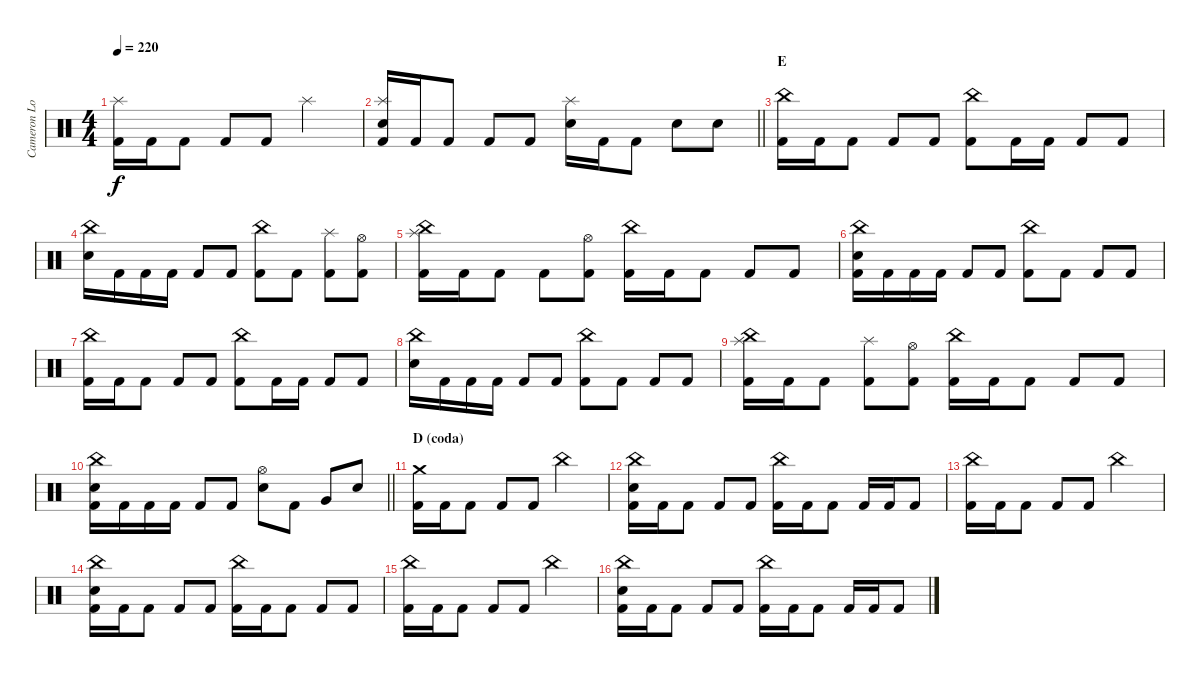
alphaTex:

\track ("Cameron Losch - Drums" "Cameron Lo") {instrument percussion}
\staff {score}
\articulation defaults
\ts (4 4)
\tempo 220
\clef neutral
\ks c
("Kick (hit) 2" "Splash (hit)").16{dy f} "Kick (hit) 2".16 "Kick (hit) 2".8 "Kick (hit) 2".8 "Kick (hit) 2".8 "Splash (hit)".2 |
\barLineRight lightlight
("Kick (hit) 2" "Electric Snare (hit)" "Splash (hit)").16 "Kick (hit) 2".16 "Kick (hit) 2".8 "Kick (hit) 2".8 "Kick (hit) 2".8 ("Splash (hit)" "Electric Snare (hit)").16 "Kick (hit) 2".16 "Kick (hit) 2".8 "Electric Snare (hit)".8 "Electric Snare (hit)".8 |
\section ("" "E")
("China (hit)" "Kick (hit) 2").16 "Kick (hit) 2".16 "Kick (hit) 2".8 "Kick (hit) 2".8 "Kick (hit) 2".8 ("China (hit)" "Kick (hit) 2").8 "Kick (hit) 2".16 "Kick (hit) 2".16 "Kick (hit) 2".8 "Kick (hit) 2".8 |
("China (hit)" "Electric Snare (hit)").16 "Kick (hit) 2".16 "Kick (hit) 2".16 "Kick (hit) 2".16 "Kick (hit) 2".8 "Kick (hit) 2".8 ("China (hit)" "Kick (hit) 2").8 "Kick (hit) 2".8 ("Splash (hit)" "Kick (hit) 2").8 ("Hi-Hat (open)" "Kick (hit) 2").8 |
("China (hit)" "Splash (hit)" "Kick (hit) 2").16 "Kick (hit) 2".16 "Kick (hit) 2".8 "Kick (hit) 2".8 ("Hi-Hat (open)" "Kick (hit) 2").8 ("China (hit)" "Kick (hit) 2").16 "Kick (hit) 2".16 "Kick (hit) 2".8 "Kick (hit) 2".8 "Kick (hit) 2".8 |
("China (hit)" "Electric Snare (hit)" "Kick (hit) 2").16 "Kick (hit) 2".16 "Kick (hit) 2".16 "Kick (hit) 2".16 "Kick (hit) 2".8 "Kick (hit) 2".8 ("China (hit)" "Kick (hit) 2").8 "Kick (hit) 2".8 "Kick (hit) 2".8 "Kick (hit) 2".8 |
("China (hit)" "Kick (hit) 2").16 "Kick (hit) 2".16 "Kick (hit) 2".8 "Kick (hit) 2".8 "Kick (hit) 2".8 ("China (hit)" "Kick (hit) 2").8 "Kick (hit) 2".16 "Kick (hit) 2".16 "Kick (hit) 2".8 "Kick (hit) 2".8 |
("China (hit)" "Electric Snare (hit)").16 "Kick (hit) 2".16 "Kick (hit) 2".16 "Kick (hit) 2".16 "Kick (hit) 2".8 "Kick (hit) 2".8 ("China (hit)" "Kick (hit) 2").8 "Kick (hit) 2".8 "Kick (hit) 2".8 "Kick (hit) 2".8 |
("China (hit)" "Splash (hit)" "Kick (hit) 2").16 "Kick (hit) 2".16 "Kick (hit) 2".8 ("Splash (hit)" "Kick (hit) 2").8 ("Hi-Hat (open)" "Kick (hit) 2").8 ("China (hit)" "Kick (hit) 2").16 "Kick (hit) 2".16 "Kick (hit) 2".8 "Kick (hit) 2".8 "Kick (hit) 2".8 |
\barLineRight lightlight
("China (hit)" "Electric Snare (hit)" "Kick (hit) 2").16 "Kick (hit) 2".16 "Kick (hit) 2".16 "Kick (hit) 2".16 "Kick (hit) 2".8 "Kick (hit) 2".8 ("Hi-Hat (open)" "Electric Snare (hit)").8 "Kick (hit) 2".8 "Very Low Tom (hit)".8 "Electric Snare (hit)".8 |
\section ("" "D (coda)")
("Kick (hit) 2" "Crash medium (hit)").16 "Kick (hit) 2".16 "Kick (hit) 2".8 "Kick (hit) 2".8 "Kick (hit) 2".8 "China (hit)".2 |
("Kick (hit) 2" "Electric Snare (hit)" "China (hit)").16 "Kick (hit) 2".16 "Kick (hit) 2".8 "Kick (hit) 2".8 "Kick (hit) 2".8 ("Kick (hit) 2" "China (hit)").16 "Kick (hit) 2".16 "Kick (hit) 2".8 "Kick (hit) 2".16 "Kick (hit) 2".16 "Kick (hit) 2".8 |
("Kick (hit) 2" "China (hit)").16 "Kick (hit) 2".16 "Kick (hit) 2".8 "Kick (hit) 2".8 "Kick (hit) 2".8 "China (hit)".2 |
("Kick (hit) 2" "Electric Snare (hit)" "China (hit)").16 "Kick (hit) 2".16 "Kick (hit) 2".8 "Kick (hit) 2".8 "Kick (hit) 2".8 ("Kick (hit) 2" "China (hit)").16 "Kick (hit) 2".16 "Kick (hit) 2".8 "Kick (hit) 2".8 "Kick (hit) 2".8 |
("Kick (hit) 2" "China (hit)").16 "Kick (hit) 2".16 "Kick (hit) 2".8 "Kick (hit) 2".8 "Kick (hit) 2".8 "China (hit)".2 |
("Kick (hit) 2" "Electric Snare (hit)" "China (hit)").16 "Kick (hit) 2".16 "Kick (hit) 2".8 "Kick (hit) 2".8 "Kick (hit) 2".8 ("Kick (hit) 2" "China (hit)").16 "Kick (hit) 2".16 "Kick (hit) 2".8 "Kick (hit) 2".16 "Kick (hit) 2".16 "Kick (hit) 2".8
